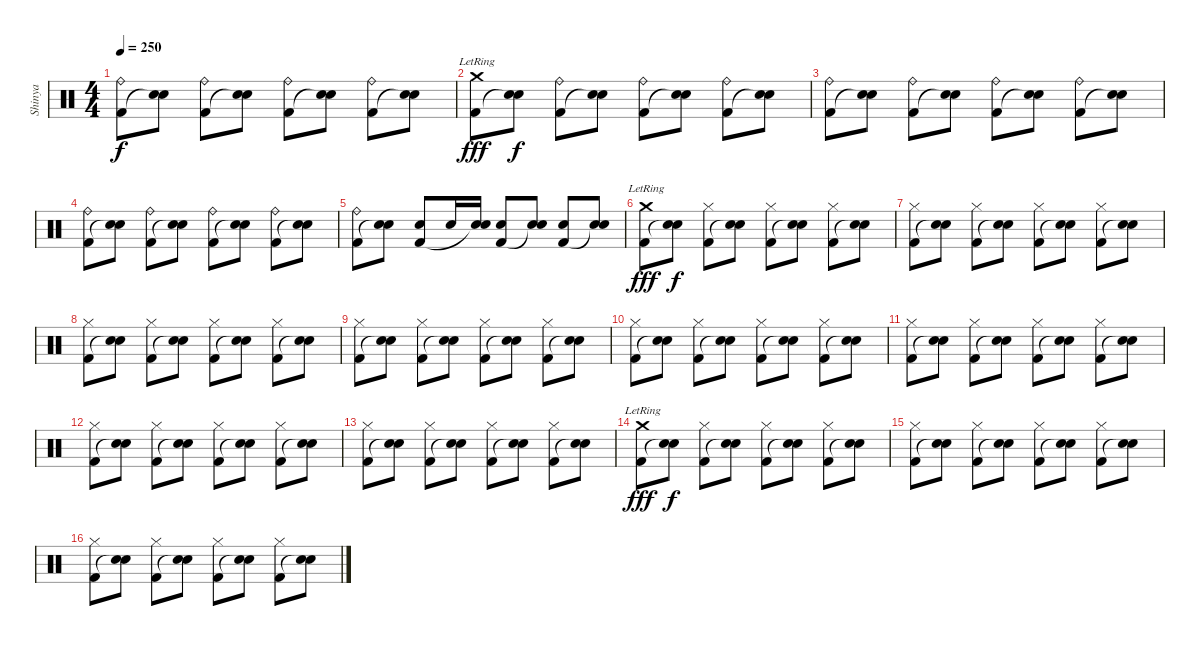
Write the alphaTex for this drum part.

\track ("Shinya" "Shinya") {instrument percussion}
\staff {score}
\articulation defaults
\ts (4 4)
\tempo 250
\clef neutral
\ks c
("Ride (bell)" "Kick (hit) 2").8{dy f} ("Electric Snare (hit)" "Snare (hit)"{t}).8 ("Ride (bell)" "Kick (hit) 2").8 ("Electric Snare (hit)" "Snare (hit)"{t}).8 ("Ride (bell)" "Kick (hit) 2").8 ("Electric Snare (hit)" "Snare (hit)"{t}).8 ("Ride (bell)" "Kick (hit) 2").8 ("Electric Snare (hit)" "Snare (hit)"{t}).8 |
("Crash medium (hit)"{lr} "Kick (hit) 2").8{dy fff} ("Electric Snare (hit)" "Snare (hit)"{t}).8{dy f} ("Ride (bell)" "Kick (hit) 2").8 ("Electric Snare (hit)" "Snare (hit)"{t}).8 ("Ride (bell)" "Kick (hit) 2").8 ("Electric Snare (hit)" "Snare (hit)"{t}).8 ("Ride (bell)" "Kick (hit) 2").8 ("Electric Snare (hit)" "Snare (hit)"{t}).8 |
("Ride (bell)" "Kick (hit) 2").8 ("Electric Snare (hit)" "Snare (hit)"{t}).8 ("Ride (bell)" "Kick (hit) 2").8 ("Electric Snare (hit)" "Snare (hit)"{t}).8 ("Ride (bell)" "Kick (hit) 2").8 ("Electric Snare (hit)" "Snare (hit)"{t}).8 ("Ride (bell)" "Kick (hit) 2").8 ("Electric Snare (hit)" "Snare (hit)"{t}).8 |
("Ride (bell)" "Kick (hit) 2").8 ("Electric Snare (hit)" "Snare (hit)"{t}).8 ("Ride (bell)" "Kick (hit) 2").8 ("Electric Snare (hit)" "Snare (hit)"{t}).8 ("Ride (bell)" "Kick (hit) 2").8 ("Electric Snare (hit)" "Snare (hit)"{t}).8 ("Ride (bell)" "Kick (hit) 2").8 ("Electric Snare (hit)" "Snare (hit)"{t}).8 |
("Ride (bell)" "Kick (hit) 2").8 ("Electric Snare (hit)" "Snare (hit)"{t}).8 ("Electric Snare (hit)" "Kick (hit) 2").8 "Electric Snare (hit)".16 ("Electric Snare (hit)" "Snare (hit)"{t}).16 ("Electric Snare (hit)" "Kick (hit) 2").8 ("Electric Snare (hit)" "Snare (hit)"{t}).8 ("Electric Snare (hit)" "Kick (hit) 2").8 ("Electric Snare (hit)" "Snare (hit)"{t}).8 |
("Crash medium (hit)"{lr} "Kick (hit) 2").8{dy fff} ("Electric Snare (hit)" "Snare (hit)"{t}).8{dy f} ("Hi-Hat (closed)" "Kick (hit) 2").8 ("Electric Snare (hit)" "Snare (hit)"{t}).8 ("Hi-Hat (closed)" "Kick (hit) 2").8 ("Electric Snare (hit)" "Snare (hit)"{t}).8 ("Hi-Hat (closed)" "Kick (hit) 2").8 ("Electric Snare (hit)" "Snare (hit)"{t}).8 |
("Hi-Hat (closed)" "Kick (hit) 2").8 ("Electric Snare (hit)" "Snare (hit)"{t}).8 ("Hi-Hat (closed)" "Kick (hit) 2").8 ("Electric Snare (hit)" "Snare (hit)"{t}).8 ("Hi-Hat (closed)" "Kick (hit) 2").8 ("Electric Snare (hit)" "Snare (hit)"{t}).8 ("Hi-Hat (closed)" "Kick (hit) 2").8 ("Electric Snare (hit)" "Snare (hit)"{t}).8 |
("Hi-Hat (closed)" "Kick (hit) 2").8 ("Electric Snare (hit)" "Snare (hit)"{t}).8 ("Hi-Hat (closed)" "Kick (hit) 2").8 ("Electric Snare (hit)" "Snare (hit)"{t}).8 ("Hi-Hat (closed)" "Kick (hit) 2").8 ("Electric Snare (hit)" "Snare (hit)"{t}).8 ("Hi-Hat (closed)" "Kick (hit) 2").8 ("Electric Snare (hit)" "Snare (hit)"{t}).8 |
("Hi-Hat (closed)" "Kick (hit) 2").8 ("Electric Snare (hit)" "Snare (hit)"{t}).8 ("Hi-Hat (closed)" "Kick (hit) 2").8 ("Electric Snare (hit)" "Snare (hit)"{t}).8 ("Hi-Hat (closed)" "Kick (hit) 2").8 ("Electric Snare (hit)" "Snare (hit)"{t}).8 ("Hi-Hat (closed)" "Kick (hit) 2").8 ("Electric Snare (hit)" "Snare (hit)"{t}).8 |
("Hi-Hat (closed)" "Kick (hit) 2").8 ("Electric Snare (hit)" "Snare (hit)"{t}).8 ("Hi-Hat (closed)" "Kick (hit) 2").8 ("Electric Snare (hit)" "Snare (hit)"{t}).8 ("Hi-Hat (closed)" "Kick (hit) 2").8 ("Electric Snare (hit)" "Snare (hit)"{t}).8 ("Hi-Hat (closed)" "Kick (hit) 2").8 ("Electric Snare (hit)" "Snare (hit)"{t}).8 |
("Hi-Hat (closed)" "Kick (hit) 2").8 ("Electric Snare (hit)" "Snare (hit)"{t}).8 ("Hi-Hat (closed)" "Kick (hit) 2").8 ("Electric Snare (hit)" "Snare (hit)"{t}).8 ("Hi-Hat (closed)" "Kick (hit) 2").8 ("Electric Snare (hit)" "Snare (hit)"{t}).8 ("Hi-Hat (closed)" "Kick (hit) 2").8 ("Electric Snare (hit)" "Snare (hit)"{t}).8 |
("Hi-Hat (closed)" "Kick (hit) 2").8 ("Electric Snare (hit)" "Snare (hit)"{t}).8 ("Hi-Hat (closed)" "Kick (hit) 2").8 ("Electric Snare (hit)" "Snare (hit)"{t}).8 ("Hi-Hat (closed)" "Kick (hit) 2").8 ("Electric Snare (hit)" "Snare (hit)"{t}).8 ("Hi-Hat (closed)" "Kick (hit) 2").8 ("Electric Snare (hit)" "Snare (hit)"{t}).8 |
("Hi-Hat (closed)" "Kick (hit) 2").8 ("Electric Snare (hit)" "Snare (hit)"{t}).8 ("Hi-Hat (closed)" "Kick (hit) 2").8 ("Electric Snare (hit)" "Snare (hit)"{t}).8 ("Hi-Hat (closed)" "Kick (hit) 2").8 ("Electric Snare (hit)" "Snare (hit)"{t}).8 ("Hi-Hat (closed)" "Kick (hit) 2").8 ("Electric Snare (hit)" "Snare (hit)"{t}).8 |
("Crash medium (hit)"{lr} "Kick (hit) 2").8{dy fff} ("Electric Snare (hit)" "Snare (hit)"{t}).8{dy f} ("Hi-Hat (closed)" "Kick (hit) 2").8 ("Electric Snare (hit)" "Snare (hit)"{t}).8 ("Hi-Hat (closed)" "Kick (hit) 2").8 ("Electric Snare (hit)" "Snare (hit)"{t}).8 ("Hi-Hat (closed)" "Kick (hit) 2").8 ("Electric Snare (hit)" "Snare (hit)"{t}).8 |
("Hi-Hat (closed)" "Kick (hit) 2").8 ("Electric Snare (hit)" "Snare (hit)"{t}).8 ("Hi-Hat (closed)" "Kick (hit) 2").8 ("Electric Snare (hit)" "Snare (hit)"{t}).8 ("Hi-Hat (closed)" "Kick (hit) 2").8 ("Electric Snare (hit)" "Snare (hit)"{t}).8 ("Hi-Hat (closed)" "Kick (hit) 2").8 ("Electric Snare (hit)" "Snare (hit)"{t}).8 |
("Hi-Hat (closed)" "Kick (hit) 2").8 ("Electric Snare (hit)" "Snare (hit)"{t}).8 ("Hi-Hat (closed)" "Kick (hit) 2").8 ("Electric Snare (hit)" "Snare (hit)"{t}).8 ("Hi-Hat (closed)" "Kick (hit) 2").8 ("Electric Snare (hit)" "Snare (hit)"{t}).8 ("Hi-Hat (closed)" "Kick (hit) 2").8 ("Electric Snare (hit)" "Snare (hit)"{t}).8
